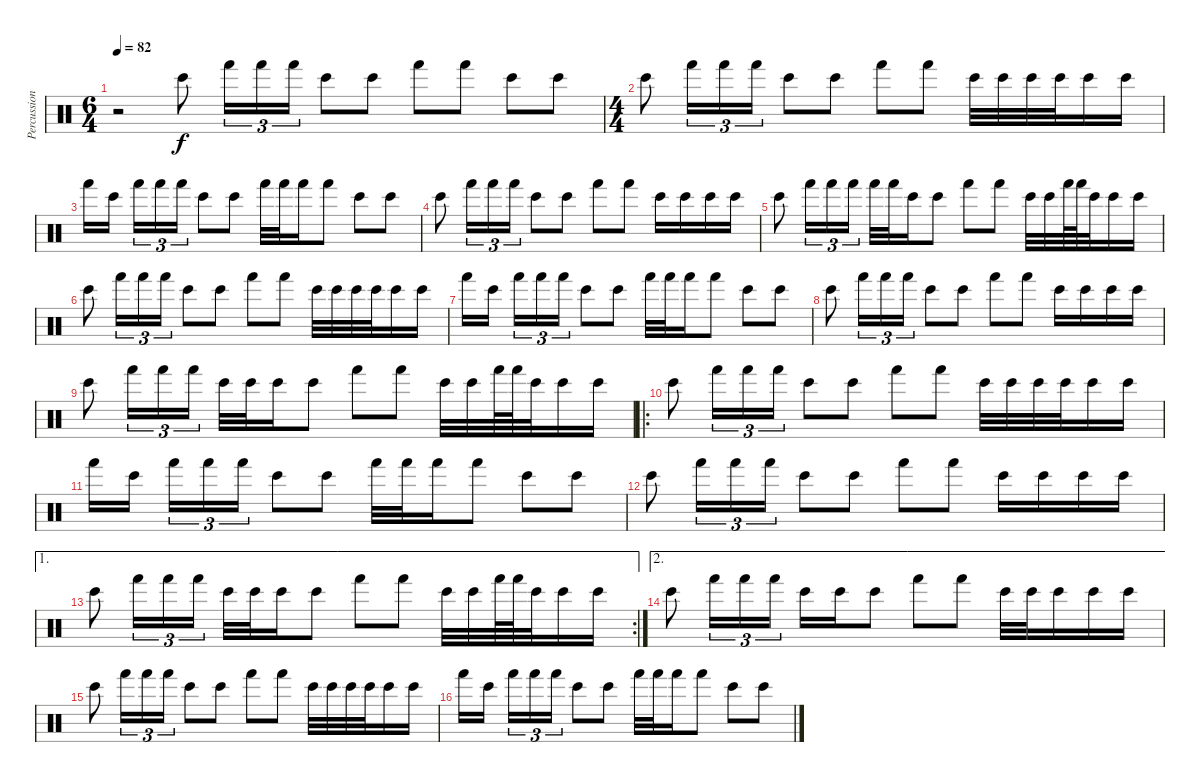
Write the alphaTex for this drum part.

\track ("Percussion" "Percussion") {instrument percussion}
\staff {score}
\articulation defaults
\ts (6 4)
\tempo 82
\clef neutral
\ks c
r.2{dy f} "Bongo High (hit)".8 "Hand (hit)".16{tu (3 2)} "Hand (hit)".16{tu (3 2)} "Hand (hit)".16{tu (3 2)} "Bongo High (hit)".8 "Bongo High (hit)".8 "Hand (hit)".8 "Hand (hit)".8 "Bongo High (hit)".8 "Bongo High (hit)".8 |
\ts (4 4)
\section ("" "")
"Bongo High (hit)".8 "Hand (hit)".16{tu (3 2)} "Hand (hit)".16{tu (3 2)} "Hand (hit)".16{tu (3 2)} "Bongo High (hit)".8 "Bongo High (hit)".8 "Hand (hit)".8 "Hand (hit)".8 "Bongo High (hit)".32 "Bongo High (hit)".32 "Bongo High (hit)".32 "Bongo High (hit)".32 "Bongo High (hit)".16 "Bongo High (hit)".16 |
"Hand (hit)".16 "Bongo High (hit)".16 "Hand (hit)".16{tu (3 2)} "Hand (hit)".16{tu (3 2)} "Hand (hit)".16{tu (3 2)} "Bongo High (hit)".8 "Bongo High (hit)".8 "Hand (hit)".32 "Hand (hit)".32 "Hand (hit)".16 "Hand (hit)".8 "Bongo High (hit)".8 "Bongo High (hit)".8 |
"Bongo High (hit)".8 "Hand (hit)".16{tu (3 2)} "Hand (hit)".16{tu (3 2)} "Hand (hit)".16{tu (3 2)} "Bongo High (hit)".8 "Bongo High (hit)".8 "Hand (hit)".8 "Hand (hit)".8 "Bongo High (hit)".16 "Bongo High (hit)".16 "Bongo High (hit)".16 "Bongo High (hit)".16 |
\section ("" "")
"Bongo High (hit)".8 "Hand (hit)".16{tu (3 2)} "Hand (hit)".16{tu (3 2)} "Hand (hit)".16{tu (3 2)} "Hand (hit)".32 "Hand (hit)".32 "Bongo High (hit)".16 "Bongo High (hit)".8 "Hand (hit)".8 "Hand (hit)".8 "Bongo High (hit)".32 "Bongo High (hit)".32 "Hand (hit)".64 "Hand (hit)".64 "Bongo High (hit)".32 "Bongo High (hit)".16 "Bongo High (hit)".16 |
"Bongo High (hit)".8 "Hand (hit)".16{tu (3 2)} "Hand (hit)".16{tu (3 2)} "Hand (hit)".16{tu (3 2)} "Bongo High (hit)".8 "Bongo High (hit)".8 "Hand (hit)".8 "Hand (hit)".8 "Bongo High (hit)".32 "Bongo High (hit)".32 "Bongo High (hit)".32 "Bongo High (hit)".32 "Bongo High (hit)".16 "Bongo High (hit)".16 |
"Hand (hit)".16 "Bongo High (hit)".16 "Hand (hit)".16{tu (3 2)} "Hand (hit)".16{tu (3 2)} "Hand (hit)".16{tu (3 2)} "Bongo High (hit)".8 "Bongo High (hit)".8 "Hand (hit)".32 "Hand (hit)".32 "Hand (hit)".16 "Hand (hit)".8 "Bongo High (hit)".8 "Bongo High (hit)".8 |
"Bongo High (hit)".8 "Hand (hit)".16{tu (3 2)} "Hand (hit)".16{tu (3 2)} "Hand (hit)".16{tu (3 2)} "Bongo High (hit)".8 "Bongo High (hit)".8 "Hand (hit)".8 "Hand (hit)".8 "Bongo High (hit)".16 "Bongo High (hit)".16 "Bongo High (hit)".16 "Bongo High (hit)".16 |
"Bongo High (hit)".8 "Hand (hit)".16{tu (3 2)} "Hand (hit)".16{tu (3 2)} "Hand (hit)".16{tu (3 2)} "Bongo High (hit)".32 "Bongo High (hit)".32 "Bongo High (hit)".16 "Bongo High (hit)".8 "Hand (hit)".8 "Hand (hit)".8 "Bongo High (hit)".32 "Bongo High (hit)".32 "Hand (hit)".64 "Hand (hit)".64 "Bongo High (hit)".32 "Bongo High (hit)".16 "Bongo High (hit)".16 |
\ro "Bongo High (hit)".8 "Hand (hit)".16{tu (3 2)} "Hand (hit)".16{tu (3 2)} "Hand (hit)".16{tu (3 2)} "Bongo High (hit)".8 "Bongo High (hit)".8 "Hand (hit)".8 "Hand (hit)".8 "Bongo High (hit)".32 "Bongo High (hit)".32 "Bongo High (hit)".32 "Bongo High (hit)".32 "Bongo High (hit)".16 "Bongo High (hit)".16
|
"Hand (hit)".16 "Bongo High (hit)".16 "Hand (hit)".16{tu (3 2)} "Hand (hit)".16{tu (3 2)} "Hand (hit)".16{tu (3 2)} "Bongo High (hit)".8 "Bongo High (hit)".8 "Hand (hit)".32 "Hand (hit)".32 "Hand (hit)".16 "Hand (hit)".8 "Bongo High (hit)".8 "Bongo High (hit)".8 |
"Bongo High (hit)".8 "Hand (hit)".16{tu (3 2)} "Hand (hit)".16{tu (3 2)} "Hand (hit)".16{tu (3 2)} "Bongo High (hit)".8 "Bongo High (hit)".8 "Hand (hit)".8 "Hand (hit)".8 "Bongo High (hit)".16 "Bongo High (hit)".16 "Bongo High (hit)".16 "Bongo High (hit)".16 |
\ae 1
\rc 2 "Bongo High (hit)".8 "Hand (hit)".16{tu (3 2)} "Hand (hit)".16{tu (3 2)} "Hand (hit)".16{tu (3 2)} "Bongo High (hit)".32 "Bongo High (hit)".32 "Bongo High (hit)".16 "Bongo High (hit)".8 "Hand (hit)".8 "Hand (hit)".8 "Bongo High (hit)".32 "Bongo High (hit)".32 "Hand (hit)".64 "Hand (hit)".64 "Bongo High (hit)".32 "Bongo High (hit)".16 "Bongo High (hit)".16
|
\ae 2 "Bongo High (hit)".8 "Hand (hit)".16{tu (3 2)} "Hand (hit)".16{tu (3 2)} "Hand (hit)".16{tu (3 2)} "Bongo High (hit)".16 "Bongo High (hit)".16 "Bongo High (hit)".8 "Hand (hit)".8 "Hand (hit)".8 "Bongo High (hit)".32 "Bongo High (hit)".32 "Bongo High (hit)".16 "Bongo High (hit)".16 "Bongo High (hit)".16
|
\section ("" "")
"Bongo High (hit)".8 "Hand (hit)".16{tu (3 2)} "Hand (hit)".16{tu (3 2)} "Hand (hit)".16{tu (3 2)} "Bongo High (hit)".8 "Bongo High (hit)".8 "Hand (hit)".8 "Hand (hit)".8 "Bongo High (hit)".32 "Bongo High (hit)".32 "Bongo High (hit)".32 "Bongo High (hit)".32 "Bongo High (hit)".16 "Bongo High (hit)".16 |
"Hand (hit)".16 "Bongo High (hit)".16 "Hand (hit)".16{tu (3 2)} "Hand (hit)".16{tu (3 2)} "Hand (hit)".16{tu (3 2)} "Bongo High (hit)".8 "Bongo High (hit)".8 "Hand (hit)".32 "Hand (hit)".32 "Hand (hit)".16 "Hand (hit)".8 "Bongo High (hit)".8 "Bongo High (hit)".8
